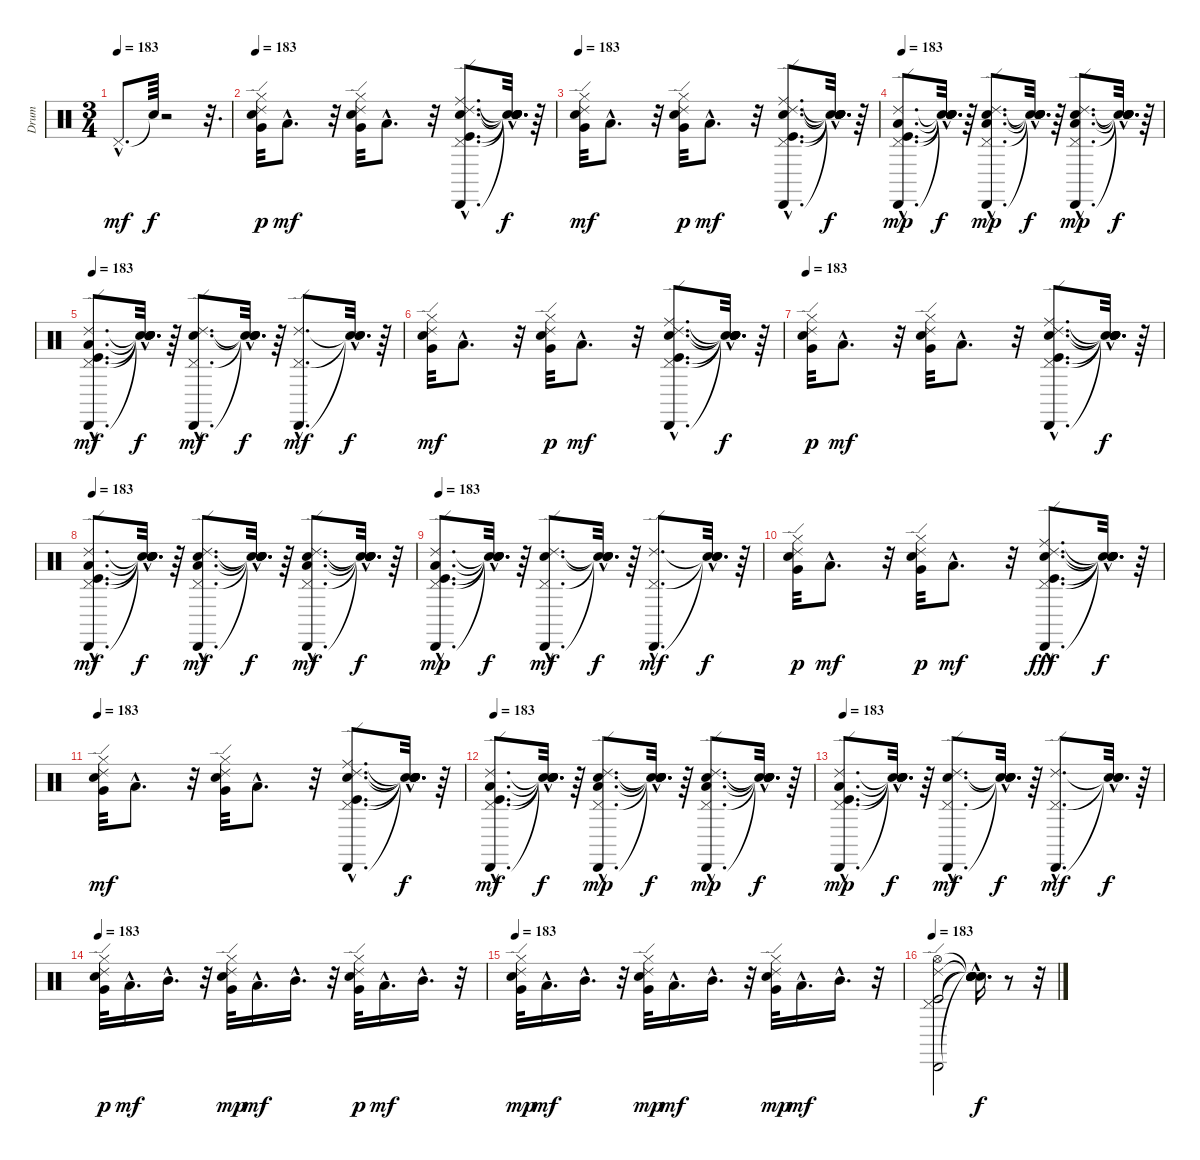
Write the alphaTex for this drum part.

\track ("Drum" "Drum") {instrument percussion}
\staff {score}
\articulation defaults
\ts (3 4)
\tempo 183
\clef neutral
\ks c "Pedal Hi-Hat (hit)"{hac}.8{d dy mf} "Snare (hit)"{t}.64{dy f}
r.2 r.32{d} |
\tempo 183
("Ride (edge) 2" "Very Low Tom (hit)" "Hi-Hat (closed)" "Electric Snare (hit)").32{dy p} "Low Tom (hit)"{hac}.8{d dy mf} r.32 ("Ride (edge) 2" "Hi-Hat (closed)" "Very Low Tom (hit)" "Electric Snare (hit)").32 "Low Tom (hit)"{hac}.8{d} r.32 ("Ride (middle)"{hac} "Ride (edge) 2"{hac} "Kick (hit)"{hac} "Pedal Hi-Hat (hit)"{hac} "Cabasa (hit)"{hac} "Electric Snare (hit)"{hac}).8{d} ("Snare (hit)"{hac t} "Snare (hit)"{hac t} "Snare (hit)"{hac t} "Snare (hit)"{hac t} "Snare (hit)"{hac t} "Snare (hit)"{hac t}).32{d dy f} r.64 |
\tempo 183
("Electric Snare (hit)" "Hi-Hat (closed)" "Very Low Tom (hit)" "Ride (edge) 2").32{dy mf} "Low Tom (hit)"{hac}.8{d} r.32 ("Electric Snare (hit)" "Very Low Tom (hit)" "Hi-Hat (closed)" "Ride (edge) 2").32{dy p} "Low Tom (hit)"{hac}.8{d dy mf} r.32 ("Electric Snare (hit)"{hac} "Cabasa (hit)"{hac} "Pedal Hi-Hat (hit)"{hac} "Kick (hit)"{hac} "Ride (edge) 2"{hac} "Ride (middle)"{hac}).8{d} ("Snare (hit)"{hac t} "Snare (hit)"{hac t} "Snare (hit)"{hac t} "Snare (hit)"{hac t} "Snare (hit)"{hac t} "Snare (hit)"{hac t}).32{d dy f} r.64 |
\tempo 183
("Low Tom (hit)"{hac} "Cabasa (hit)"{hac} "Pedal Hi-Hat (hit)"{hac} "Kick (hit)"{hac} "Ride (edge) 2"{hac}).8{d dy mp} ("Snare (hit)"{hac t} "Snare (hit)"{hac t} "Snare (hit)"{hac t} "Snare (hit)"{hac t} "Snare (hit)"{hac t}).32{d dy f} r.64 ("Low Tom (hit)"{hac} "Electric Snare (hit)"{hac} "Cabasa (hit)"{hac} "Pedal Hi-Hat (hit)"{hac} "Ride (edge) 2"{hac}).8{d dy mp} ("Snare (hit)"{hac t} "Snare (hit)"{hac t} "Snare (hit)"{hac t} "Snare (hit)"{hac t} "Snare (hit)"{hac t}).32{d dy f} r.64 ("Low Tom (hit)"{hac} "Electric Snare (hit)"{hac} "Cabasa (hit)"{hac} "Pedal Hi-Hat (hit)"{hac} "Ride (edge) 2"{hac}).8{d dy mp} ("Snare (hit)"{hac t} "Snare (hit)"{hac t} "Snare (hit)"{hac t} "Snare (hit)"{hac t} "Snare (hit)"{hac t}).32{d dy f} r.64 |
\tempo 183
("Ride (edge) 2"{hac} "Kick (hit)"{hac} "Pedal Hi-Hat (hit)"{hac} "Cabasa (hit)"{hac} "Low Tom (hit)"{hac}).8{d dy mf} ("Snare (hit)"{hac t} "Snare (hit)"{hac t} "Snare (hit)"{hac t} "Snare (hit)"{hac t} "Snare (hit)"{hac t}).32{d dy f} r.64 ("Ride (edge) 2"{hac} "Electric Snare (hit)"{hac} "Pedal Hi-Hat (hit)"{hac} "Cabasa (hit)"{hac}).8{d dy mf} ("Snare (hit)"{hac t} "Snare (hit)"{hac t} "Snare (hit)"{hac t} "Snare (hit)"{hac t}).32{d dy f} r.64 ("Ride (edge) 2"{hac} "Pedal Hi-Hat (hit)"{hac} "Cabasa (hit)"{hac}).8{d dy mf} ("Snare (hit)"{hac t} "Snare (hit)"{hac t} "Snare (hit)"{hac t}).32{d dy f} r.64 |
("Electric Snare (hit)" "Hi-Hat (closed)" "Very Low Tom (hit)" "Ride (edge) 2").32{dy mf} "Low Tom (hit)"{hac}.8{d} r.32 ("Electric Snare (hit)" "Very Low Tom (hit)" "Hi-Hat (closed)" "Ride (edge) 2").32{dy p} "Low Tom (hit)"{hac}.8{d dy mf} r.32 ("Electric Snare (hit)"{hac} "Cabasa (hit)"{hac} "Pedal Hi-Hat (hit)"{hac} "Kick (hit)"{hac} "Ride (edge) 2"{hac} "Ride (middle)"{hac}).8{d} ("Snare (hit)"{hac t} "Snare (hit)"{hac t} "Snare (hit)"{hac t} "Snare (hit)"{hac t} "Snare (hit)"{hac t} "Snare (hit)"{hac t}).32{d dy f} r.64 |
\tempo 183
("Ride (edge) 2" "Very Low Tom (hit)" "Hi-Hat (closed)" "Electric Snare (hit)").32{dy p} "Low Tom (hit)"{hac}.8{d dy mf} r.32 ("Ride (edge) 2" "Hi-Hat (closed)" "Very Low Tom (hit)" "Electric Snare (hit)").32 "Low Tom (hit)"{hac}.8{d} r.32 ("Ride (middle)"{hac} "Ride (edge) 2"{hac} "Kick (hit)"{hac} "Pedal Hi-Hat (hit)"{hac} "Cabasa (hit)"{hac} "Electric Snare (hit)"{hac}).8{d} ("Snare (hit)"{hac t} "Snare (hit)"{hac t} "Snare (hit)"{hac t} "Snare (hit)"{hac t} "Snare (hit)"{hac t} "Snare (hit)"{hac t}).32{d dy f} r.64 |
\tempo 183
("Ride (edge) 2"{hac} "Low Tom (hit)"{hac} "Kick (hit)"{hac} "Pedal Hi-Hat (hit)"{hac} "Cabasa (hit)"{hac}).8{d dy mf} ("Snare (hit)"{hac t} "Snare (hit)"{hac t} "Snare (hit)"{hac t} "Snare (hit)"{hac t} "Snare (hit)"{hac t}).32{d dy f} r.64 ("Ride (edge) 2"{hac} "Cabasa (hit)"{hac} "Pedal Hi-Hat (hit)"{hac} "Low Tom (hit)"{hac} "Electric Snare (hit)"{hac}).8{d dy mf} ("Snare (hit)"{hac t} "Snare (hit)"{hac t} "Snare (hit)"{hac t} "Snare (hit)"{hac t} "Snare (hit)"{hac t}).32{d dy f} r.64 ("Pedal Hi-Hat (hit)"{hac} "Ride (edge) 2"{hac} "Cabasa (hit)"{hac} "Electric Snare (hit)"{hac} "Low Tom (hit)"{hac}).8{d dy mf} ("Snare (hit)"{hac t} "Snare (hit)"{hac t} "Snare (hit)"{hac t} "Snare (hit)"{hac t} "Snare (hit)"{hac t}).32{d dy f} r.64 |
\tempo 183
("Cabasa (hit)"{hac} "Low Tom (hit)"{hac} "Pedal Hi-Hat (hit)"{hac} "Kick (hit)"{hac} "Ride (edge) 2"{hac}).8{d dy mp} ("Snare (hit)"{hac t} "Snare (hit)"{hac t} "Snare (hit)"{hac t} "Snare (hit)"{hac t} "Snare (hit)"{hac t}).32{d dy f} r.64 ("Cabasa (hit)"{hac} "Ride (edge) 2"{hac} "Pedal Hi-Hat (hit)"{hac} "Electric Snare (hit)"{hac}).8{d dy mf} ("Snare (hit)"{hac t} "Snare (hit)"{hac t} "Snare (hit)"{hac t} "Snare (hit)"{hac t}).32{d dy f} r.64 ("Pedal Hi-Hat (hit)"{hac} "Ride (edge) 2"{hac} "Cabasa (hit)"{hac}).8{d dy mf} ("Snare (hit)"{hac t} "Snare (hit)"{hac t} "Snare (hit)"{hac t}).32{d dy f} r.64 |
("Ride (edge) 2" "Very Low Tom (hit)" "Hi-Hat (closed)" "Electric Snare (hit)").32{dy p} "Low Tom (hit)"{hac}.8{d dy mf} r.32 ("Very Low Tom (hit)" "Electric Snare (hit)" "Hi-Hat (closed)" "Ride (edge) 2").32{dy p} "Low Tom (hit)"{hac}.8{d dy mf} r.32 ("Cabasa (hit)"{hac} "Electric Snare (hit)"{hac} "Pedal Hi-Hat (hit)"{hac} "Ride (middle)"{hac} "Kick (hit)"{hac} "Ride (edge) 2"{hac}).8{d dy fff} ("Snare (hit)"{hac t} "Snare (hit)"{hac t} "Snare (hit)"{hac t} "Snare (hit)"{hac t} "Snare (hit)"{hac t} "Snare (hit)"{hac t}).32{d dy f} r.64 |
\tempo 183
("Electric Snare (hit)" "Hi-Hat (closed)" "Very Low Tom (hit)" "Ride (edge) 2").32{dy mf} "Low Tom (hit)"{hac}.8{d} r.32 ("Electric Snare (hit)" "Ride (edge) 2" "Hi-Hat (closed)" "Very Low Tom (hit)").32 "Low Tom (hit)"{hac}.8{d} r.32 ("Electric Snare (hit)"{hac} "Cabasa (hit)"{hac} "Ride (edge) 2"{hac} "Kick (hit)"{hac} "Pedal Hi-Hat (hit)"{hac} "Ride (middle)"{hac}).8{d} ("Snare (hit)"{hac t} "Snare (hit)"{hac t} "Snare (hit)"{hac t} "Snare (hit)"{hac t} "Snare (hit)"{hac t} "Snare (hit)"{hac t}).32{d dy f} r.64 |
\tempo 183
("Pedal Hi-Hat (hit)"{hac} "Cabasa (hit)"{hac} "Low Tom (hit)"{hac} "Ride (edge) 2"{hac} "Kick (hit)"{hac}).8{d dy mf} ("Snare (hit)"{hac t} "Snare (hit)"{hac t} "Snare (hit)"{hac t} "Snare (hit)"{hac t} "Snare (hit)"{hac t}).32{d dy f} r.64 ("Low Tom (hit)"{hac} "Pedal Hi-Hat (hit)"{hac} "Electric Snare (hit)"{hac} "Cabasa (hit)"{hac} "Ride (edge) 2"{hac}).8{d dy mp} ("Snare (hit)"{hac t} "Snare (hit)"{hac t} "Snare (hit)"{hac t} "Snare (hit)"{hac t} "Snare (hit)"{hac t}).32{d dy f} r.64 ("Low Tom (hit)"{hac} "Pedal Hi-Hat (hit)"{hac} "Electric Snare (hit)"{hac} "Cabasa (hit)"{hac} "Ride (edge) 2"{hac}).8{d dy mp} ("Snare (hit)"{hac t} "Snare (hit)"{hac t} "Snare (hit)"{hac t} "Snare (hit)"{hac t} "Snare (hit)"{hac t}).32{d dy f} r.64 |
\tempo 183
("Pedal Hi-Hat (hit)"{hac} "Kick (hit)"{hac} "Low Tom (hit)"{hac} "Cabasa (hit)"{hac} "Ride (edge) 2"{hac}).8{d dy mp} ("Snare (hit)"{hac t} "Snare (hit)"{hac t} "Snare (hit)"{hac t} "Snare (hit)"{hac t} "Snare (hit)"{hac t}).32{d dy f} r.64 ("Ride (edge) 2"{hac} "Cabasa (hit)"{hac} "Pedal Hi-Hat (hit)"{hac} "Electric Snare (hit)"{hac}).8{d dy mf} ("Snare (hit)"{hac t} "Snare (hit)"{hac t} "Snare (hit)"{hac t} "Snare (hit)"{hac t}).32{d dy f} r.64 ("Cabasa (hit)"{hac} "Ride (edge) 2"{hac} "Pedal Hi-Hat (hit)"{hac}).8{d dy mf} ("Snare (hit)"{hac t} "Snare (hit)"{hac t} "Snare (hit)"{hac t}).32{d dy f} r.64 |
\tempo 183
("Very Low Tom (hit)" "Hi-Hat (closed)" "Ride (edge) 2" "Electric Snare (hit)").32{dy p} "Low Tom (hit)"{hac}.16{d dy mf} "Mid Tom (hit)"{hac}.16{d} r.32 ("Electric Snare (hit)" "Very Low Tom (hit)" "Hi-Hat (closed)" "Ride (edge) 2").32{dy mp} "Low Tom (hit)"{hac}.16{d dy mf} "Mid Tom (hit)"{hac}.16{d} r.32 ("Ride (edge) 2" "Electric Snare (hit)" "Very Low Tom (hit)" "Hi-Hat (closed)").32{dy p} "Low Tom (hit)"{hac}.16{d dy mf} "Mid Tom (hit)"{hac}.16{d} r.32 |
\tempo 183
("Electric Snare (hit)" "Very Low Tom (hit)" "Hi-Hat (closed)" "Ride (edge) 2").32{dy mp} "Low Tom (hit)"{hac}.16{d dy mf} "Mid Tom (hit)"{hac}.16{d} r.32 ("Electric Snare (hit)" "Very Low Tom (hit)" "Hi-Hat (closed)" "Ride (edge) 2").32{dy mp} "Low Tom (hit)"{hac}.16{d dy mf} "Mid Tom (hit)"{hac}.16{d} r.32 ("Electric Snare (hit)" "Very Low Tom (hit)" "Hi-Hat (closed)" "Ride (edge) 2").32{dy mp} "Low Tom (hit)"{hac}.16{d dy mf} "Mid Tom (hit)"{hac}.16{d} r.32 |
\tempo 183
("Cabasa (hit)" "Hi-Hat (open)" "Ride (edge) 2" "Pedal Hi-Hat (hit)" "Kick (hit)").2 ("Snare (hit)"{hac t} "Snare (hit)"{hac t} "Snare (hit)"{hac t} "Snare (hit)"{hac t} "Snare (hit)"{hac t}).16{d dy f} r.8 r.32
